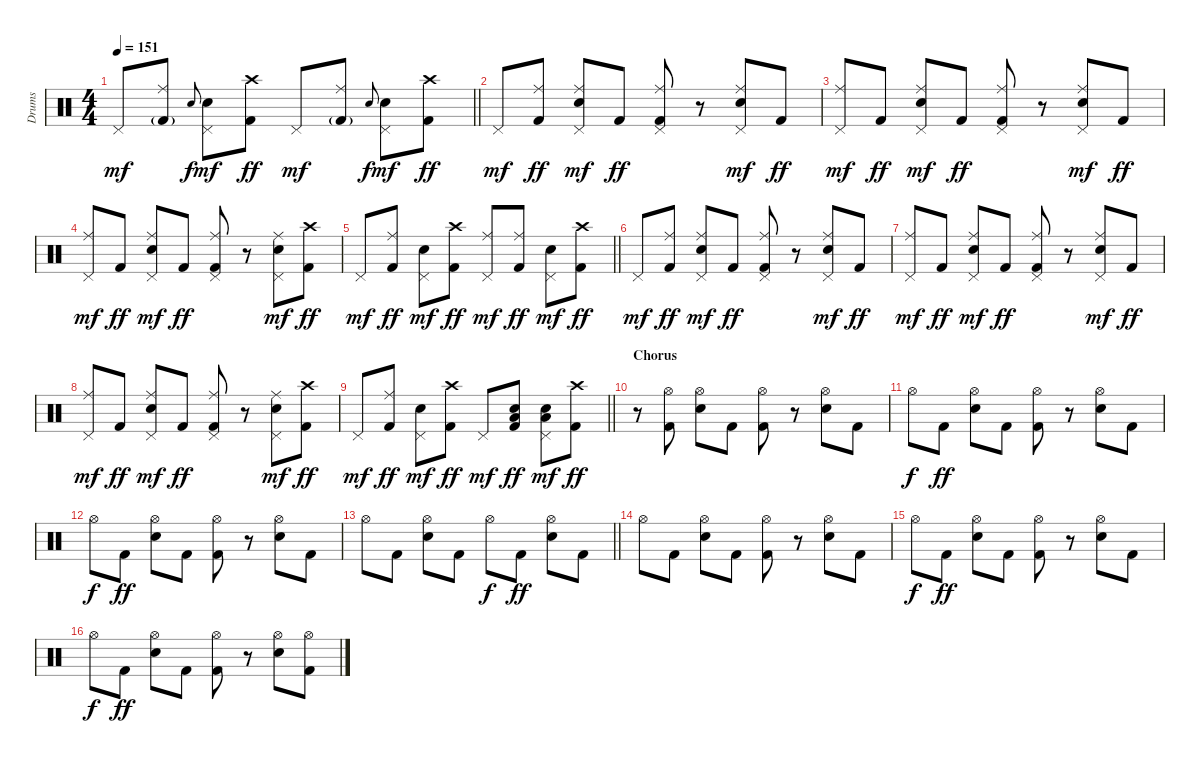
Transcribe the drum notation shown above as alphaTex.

\track ("Drums" "Drums") {instrument percussion}
\staff {score}
\articulation defaults
\ts (4 4)
\tempo 151
\clef neutral
\barLineRight lightlight
\ks c "Pedal Hi-Hat (hit)".8{dy mf}
("Ride (middle)" "Kick (hit) 2"{g}).8 "Electric Snare (hit)".8{gr onbeat dy f} ("Electric Snare (hit)" "Pedal Hi-Hat (hit)").8{dy mf} ("Crash high (hit)" "Kick (hit) 2").8{dy ff} "Pedal Hi-Hat (hit)".8{dy mf} ("Ride (middle)" "Kick (hit) 2"{g}).8 "Electric Snare (hit)".8{gr onbeat dy f} ("Electric Snare (hit)" "Pedal Hi-Hat (hit)").8{dy mf} ("Crash high (hit)" "Kick (hit) 2").8{dy ff} |
"Pedal Hi-Hat (hit)".8{dy mf} ("Ride (middle)" "Kick (hit) 2").8{dy ff} ("Ride (middle)" "Electric Snare (hit)" "Pedal Hi-Hat (hit)").8{dy mf} "Kick (hit) 2".8{dy ff} ("Ride (middle)" "Pedal Hi-Hat (hit)" "Kick (hit) 2").8 r.8 ("Ride (middle)" "Electric Snare (hit)" "Pedal Hi-Hat (hit)").8{dy mf} "Kick (hit) 2".8{dy ff} |
("Ride (middle)" "Pedal Hi-Hat (hit)").8{dy mf} "Kick (hit) 2".8{dy ff} ("Ride (middle)" "Electric Snare (hit)" "Pedal Hi-Hat (hit)").8{dy mf} "Kick (hit) 2".8{dy ff} ("Ride (middle)" "Pedal Hi-Hat (hit)" "Kick (hit) 2").8 r.8 ("Ride (middle)" "Electric Snare (hit)" "Pedal Hi-Hat (hit)").8{dy mf} "Kick (hit) 2".8{dy ff} |
("Ride (middle)" "Pedal Hi-Hat (hit)").8{dy mf} "Kick (hit) 2".8{dy ff} ("Ride (middle)" "Electric Snare (hit)" "Pedal Hi-Hat (hit)").8{dy mf} "Kick (hit) 2".8{dy ff} ("Ride (middle)" "Pedal Hi-Hat (hit)" "Kick (hit) 2").8 r.8 ("Ride (middle)" "Electric Snare (hit)" "Pedal Hi-Hat (hit)").8{dy mf} ("Crash high (hit)" "Kick (hit) 2").8{dy ff} |
\barLineRight lightlight "Pedal Hi-Hat (hit)".8{dy mf}
("Ride (middle)" "Kick (hit) 2").8{dy ff} ("Electric Snare (hit)" "Pedal Hi-Hat (hit)").8{dy mf} ("Crash high (hit)" "Kick (hit) 2").8{dy ff} ("Ride (middle)" "Pedal Hi-Hat (hit)").8{dy mf} ("Ride (middle)" "Kick (hit) 2").8{dy ff} ("Electric Snare (hit)" "Pedal Hi-Hat (hit)").8{dy mf} ("Crash high (hit)" "Kick (hit) 2").8{dy ff} |
"Pedal Hi-Hat (hit)".8{dy mf} ("Ride (middle)" "Kick (hit) 2").8{dy ff} ("Ride (middle)" "Electric Snare (hit)" "Pedal Hi-Hat (hit)").8{dy mf} "Kick (hit) 2".8{dy ff} ("Ride (middle)" "Pedal Hi-Hat (hit)" "Kick (hit) 2").8 r.8 ("Ride (middle)" "Electric Snare (hit)" "Pedal Hi-Hat (hit)").8{dy mf} "Kick (hit) 2".8{dy ff} |
("Ride (middle)" "Pedal Hi-Hat (hit)").8{dy mf} "Kick (hit) 2".8{dy ff} ("Ride (middle)" "Electric Snare (hit)" "Pedal Hi-Hat (hit)").8{dy mf} "Kick (hit) 2".8{dy ff} ("Ride (middle)" "Pedal Hi-Hat (hit)" "Kick (hit) 2").8 r.8 ("Ride (middle)" "Electric Snare (hit)" "Pedal Hi-Hat (hit)").8{dy mf} "Kick (hit) 2".8{dy ff} |
("Ride (middle)" "Pedal Hi-Hat (hit)").8{dy mf} "Kick (hit) 2".8{dy ff} ("Ride (middle)" "Electric Snare (hit)" "Pedal Hi-Hat (hit)").8{dy mf} "Kick (hit) 2".8{dy ff} ("Ride (middle)" "Pedal Hi-Hat (hit)" "Kick (hit) 2").8 r.8 ("Ride (middle)" "Electric Snare (hit)" "Pedal Hi-Hat (hit)").8{dy mf} ("Crash high (hit)" "Kick (hit) 2").8{dy ff} |
\barLineRight lightlight "Pedal Hi-Hat (hit)".8{dy mf}
("Ride (middle)" "Kick (hit) 2").8{dy ff} ("Electric Snare (hit)" "Pedal Hi-Hat (hit)").8{dy mf} ("Crash high (hit)" "Kick (hit) 2").8{dy ff} "Pedal Hi-Hat (hit)".8{dy mf} ("Electric Snare (hit)" "Low Floor Tom (hit)" "Kick (hit) 2").8{dy ff} ("Electric Snare (hit)" "Low Floor Tom (hit)" "Pedal Hi-Hat (hit)").8{dy mf} ("Crash high (hit)" "Kick (hit) 2").8{dy ff} |
\section ("" "Chorus")
r.8 ("Hi-Hat (open)" "Kick (hit) 2").8 ("Hi-Hat (open)" "Electric Snare (hit)").8 "Kick (hit) 2".8 ("Hi-Hat (open)" "Kick (hit) 2").8 r.8 ("Hi-Hat (open)" "Electric Snare (hit)").8 "Kick (hit) 2".8 |
"Hi-Hat (open)".8{dy f} "Kick (hit) 2".8{dy ff} ("Hi-Hat (open)" "Electric Snare (hit)").8 "Kick (hit) 2".8 ("Hi-Hat (open)" "Kick (hit) 2").8 r.8 ("Hi-Hat (open)" "Electric Snare (hit)").8 "Kick (hit) 2".8 |
"Hi-Hat (open)".8{dy f} "Kick (hit) 2".8{dy ff} ("Hi-Hat (open)" "Electric Snare (hit)").8 "Kick (hit) 2".8 ("Hi-Hat (open)" "Kick (hit) 2").8 r.8 ("Hi-Hat (open)" "Electric Snare (hit)").8 "Kick (hit) 2".8 |
\barLineRight lightlight "Hi-Hat (open)".8 "Kick (hit) 2".8
("Hi-Hat (open)" "Electric Snare (hit)").8 "Kick (hit) 2".8 "Hi-Hat (open)".8{dy f} "Kick (hit) 2".8{dy ff} ("Hi-Hat (open)" "Electric Snare (hit)").8 "Kick (hit) 2".8 |
"Hi-Hat (open)".8 "Kick (hit) 2".8 ("Hi-Hat (open)" "Electric Snare (hit)").8 "Kick (hit) 2".8 ("Hi-Hat (open)" "Kick (hit) 2").8 r.8 ("Hi-Hat (open)" "Electric Snare (hit)").8 "Kick (hit) 2".8 |
"Hi-Hat (open)".8{dy f} "Kick (hit) 2".8{dy ff} ("Hi-Hat (open)" "Electric Snare (hit)").8 "Kick (hit) 2".8 ("Hi-Hat (open)" "Kick (hit) 2").8 r.8 ("Hi-Hat (open)" "Electric Snare (hit)").8 "Kick (hit) 2".8 |
"Hi-Hat (open)".8{dy f} "Kick (hit) 2".8{dy ff} ("Hi-Hat (open)" "Electric Snare (hit)").8 "Kick (hit) 2".8 ("Hi-Hat (open)" "Kick (hit) 2").8 r.8 ("Hi-Hat (open)" "Electric Snare (hit)").8 ("Hi-Hat (open)" "Kick (hit) 2").8
